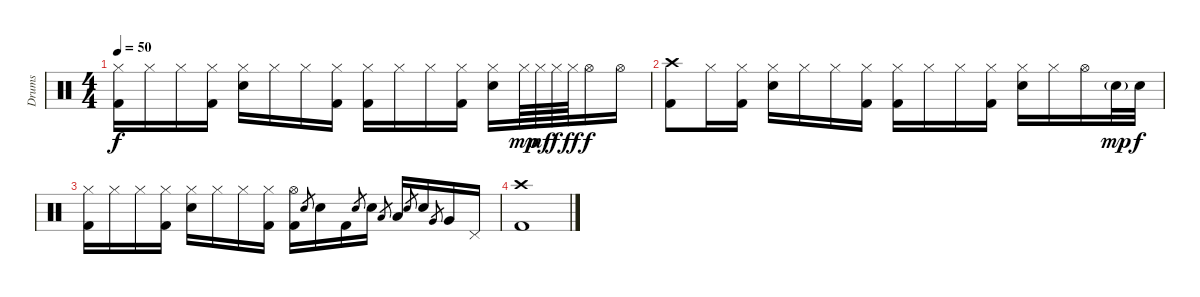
\track ("Drums" "Drums") {instrument percussion}
\staff {score}
\articulation defaults
\ts (4 4)
\tempo 50
\clef neutral
\ks c
("Hi-Hat (closed)" "Kick (hit) 2").16{dy f} "Hi-Hat (closed)".16 "Hi-Hat (closed)".16 ("Hi-Hat (closed)" "Kick (hit) 2").16 ("Hi-Hat (closed)" "Snare (hit) 2").16 "Hi-Hat (closed)".16 "Hi-Hat (closed)".16 ("Hi-Hat (closed)" "Kick (hit) 2").16 ("Hi-Hat (closed)" "Kick (hit) 2").16 "Hi-Hat (closed)".16 "Hi-Hat (closed)".16 ("Hi-Hat (closed)" "Kick (hit) 2").16 ("Hi-Hat (closed)" "Snare (hit) 2").16 "Hi-Hat (closed)".64{dy mp} "Hi-Hat (closed)".64{dy mf} "Hi-Hat (closed)".64{dy f} "Hi-Hat (closed)".64{dy ff} "Hi-Hat (open)".16{dy f} "Hi-Hat (open)".16 |
("Crash high (hit)" "Kick (hit) 2").8 "Hi-Hat (closed)".16 ("Hi-Hat (closed)" "Kick (hit) 2").16 ("Hi-Hat (closed)" "Snare (hit) 2").16 "Hi-Hat (closed)".16 "Hi-Hat (closed)".16 ("Hi-Hat (closed)" "Kick (hit) 2").16 ("Hi-Hat (closed)" "Kick (hit) 2").16 "Hi-Hat (closed)".16 "Hi-Hat (closed)".16 ("Hi-Hat (closed)" "Kick (hit) 2").16 ("Hi-Hat (closed)" "Snare (hit) 2").16 "Hi-Hat (closed)".16 "Hi-Hat (open)".16 "Snare (hit) 2"{g}.32{dy mp} "Snare (hit) 2".32{dy f} |
("Hi-Hat (closed)" "Kick (hit) 2").16 "Hi-Hat (closed)".16 "Hi-Hat (closed)".16 ("Hi-Hat (closed)" "Kick (hit) 2").16 ("Hi-Hat (closed)" "Snare (hit) 2").16 "Hi-Hat (closed)".16 "Hi-Hat (closed)".16 ("Hi-Hat (closed)" "Kick (hit) 2").16 ("Hi-Hat (open)" "Kick (hit) 2").16 "Snare (hit) 2".8{gr} "Snare (hit) 2".16 "Kick (hit) 2".16 "Snare (hit) 2".8{gr} "Snare (hit) 2".16 "Low Tom (hit)".8{gr} "Low Tom (hit)".16 "Snare (hit) 2".8{gr} "Snare (hit) 2".16 "Very Low Tom (hit)".8{gr} "Very Low Tom (hit)".16 "Pedal Hi-Hat (hit)".16 |
("Crash high (hit)" "Kick (hit) 2").1
